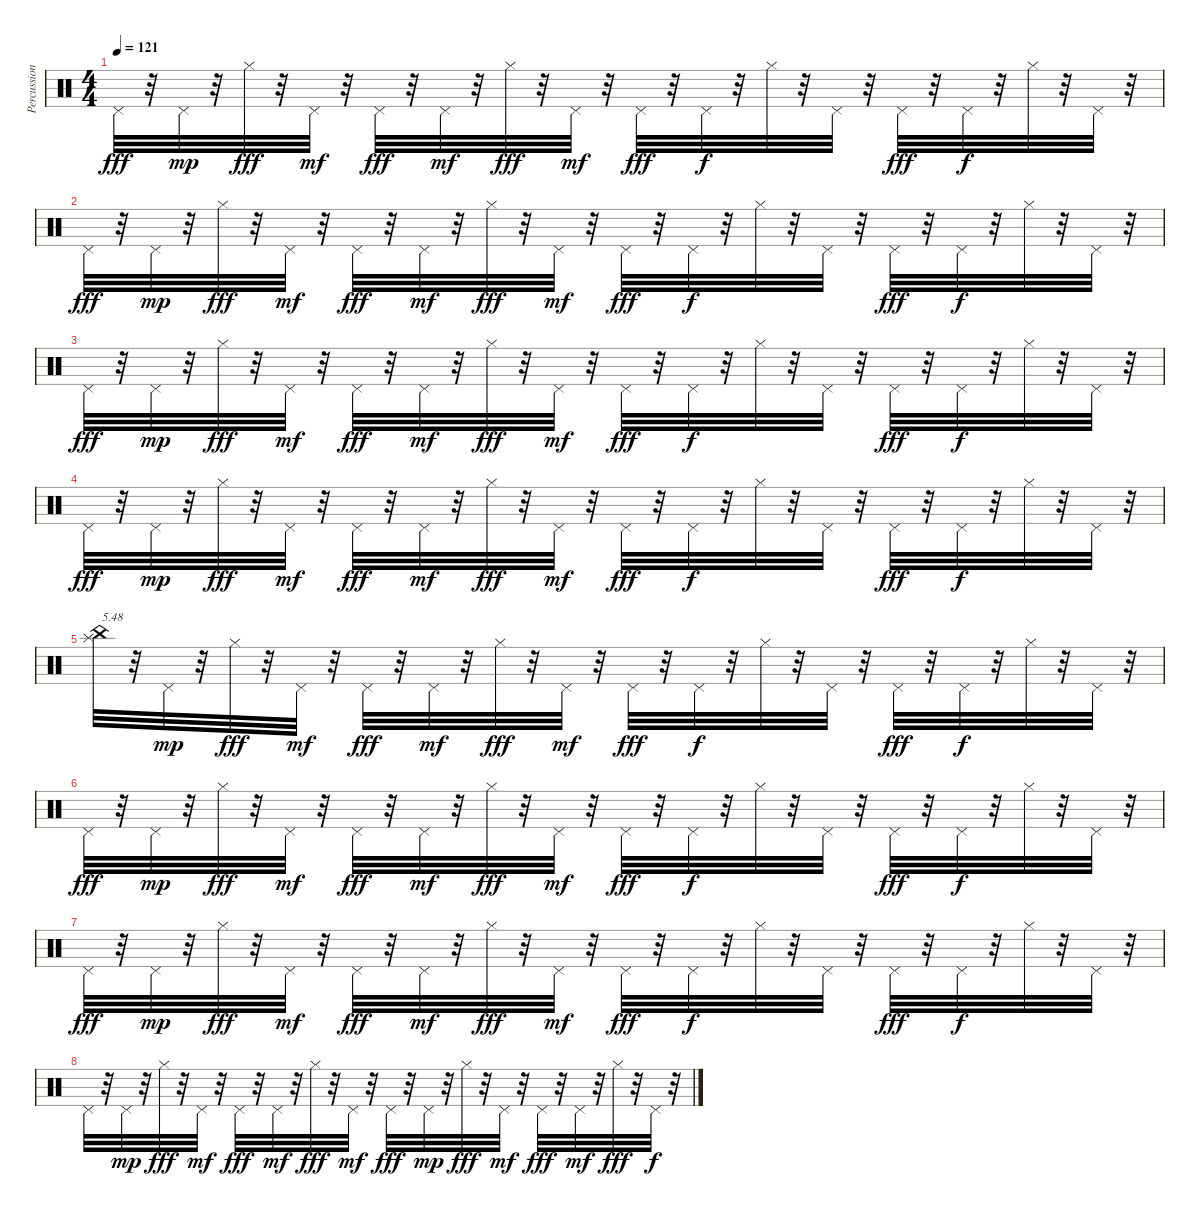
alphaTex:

\track ("Percussions" "Percussion") {instrument percussion}
\staff {score}
\articulation defaults
\ts (4 4)
\tempo 121
\clef neutral
\ks c "Pedal Hi-Hat (hit)".32{dy fff}
r.32 "Pedal Hi-Hat (hit)".32{dy mp} r.32 "Hi-Hat (closed)".32{dy fff} r.32 "Pedal Hi-Hat (hit)".32{dy mf} r.32 "Pedal Hi-Hat (hit)".32{dy fff} r.32 "Pedal Hi-Hat (hit)".32{dy mf} r.32 "Hi-Hat (closed)".32{dy fff} r.32 "Pedal Hi-Hat (hit)".32{dy mf} r.32 "Pedal Hi-Hat (hit)".32{dy fff} r.32 "Pedal Hi-Hat (hit)".32{dy f} r.32 "Hi-Hat (closed)".32 r.32 "Pedal Hi-Hat (hit)".32 r.32 "Pedal Hi-Hat (hit)".32{dy fff} r.32 "Pedal Hi-Hat (hit)".32{dy f} r.32 "Hi-Hat (closed)".32 r.32 "Pedal Hi-Hat (hit)".32 r.32 |
"Pedal Hi-Hat (hit)".32{dy fff} r.32 "Pedal Hi-Hat (hit)".32{dy mp} r.32 "Hi-Hat (closed)".32{dy fff} r.32 "Pedal Hi-Hat (hit)".32{dy mf} r.32 "Pedal Hi-Hat (hit)".32{dy fff} r.32 "Pedal Hi-Hat (hit)".32{dy mf} r.32 "Hi-Hat (closed)".32{dy fff} r.32 "Pedal Hi-Hat (hit)".32{dy mf} r.32 "Pedal Hi-Hat (hit)".32{dy fff} r.32 "Pedal Hi-Hat (hit)".32{dy f} r.32 "Hi-Hat (closed)".32 r.32 "Pedal Hi-Hat (hit)".32 r.32 "Pedal Hi-Hat (hit)".32{dy fff} r.32 "Pedal Hi-Hat (hit)".32{dy f} r.32 "Hi-Hat (closed)".32 r.32 "Pedal Hi-Hat (hit)".32 r.32 |
"Pedal Hi-Hat (hit)".32{dy fff} r.32 "Pedal Hi-Hat (hit)".32{dy mp} r.32 "Hi-Hat (closed)".32{dy fff} r.32 "Pedal Hi-Hat (hit)".32{dy mf} r.32 "Pedal Hi-Hat (hit)".32{dy fff} r.32 "Pedal Hi-Hat (hit)".32{dy mf} r.32 "Hi-Hat (closed)".32{dy fff} r.32 "Pedal Hi-Hat (hit)".32{dy mf} r.32 "Pedal Hi-Hat (hit)".32{dy fff} r.32 "Pedal Hi-Hat (hit)".32{dy f} r.32 "Hi-Hat (closed)".32 r.32 "Pedal Hi-Hat (hit)".32 r.32 "Pedal Hi-Hat (hit)".32{dy fff} r.32 "Pedal Hi-Hat (hit)".32{dy f} r.32 "Hi-Hat (closed)".32 r.32 "Pedal Hi-Hat (hit)".32 r.32 |
"Pedal Hi-Hat (hit)".32{dy fff} r.32 "Pedal Hi-Hat (hit)".32{dy mp} r.32 "Hi-Hat (closed)".32{dy fff} r.32 "Pedal Hi-Hat (hit)".32{dy mf} r.32 "Pedal Hi-Hat (hit)".32{dy fff} r.32 "Pedal Hi-Hat (hit)".32{dy mf} r.32 "Hi-Hat (closed)".32{dy fff} r.32 "Pedal Hi-Hat (hit)".32{dy mf} r.32 "Pedal Hi-Hat (hit)".32{dy fff} r.32 "Pedal Hi-Hat (hit)".32{dy f} r.32 "Hi-Hat (closed)".32 r.32 "Pedal Hi-Hat (hit)".32 r.32 "Pedal Hi-Hat (hit)".32{dy fff} r.32 "Pedal Hi-Hat (hit)".32{dy f} r.32 "Hi-Hat (closed)".32 r.32 "Pedal Hi-Hat (hit)".32 r.32 |
("Splash (hit)" "China (hit)").32{txt "5.48"} r.32 "Pedal Hi-Hat (hit)".32{dy mp} r.32 "Hi-Hat (closed)".32{dy fff} r.32 "Pedal Hi-Hat (hit)".32{dy mf} r.32 "Pedal Hi-Hat (hit)".32{dy fff} r.32 "Pedal Hi-Hat (hit)".32{dy mf} r.32 "Hi-Hat (closed)".32{dy fff} r.32 "Pedal Hi-Hat (hit)".32{dy mf} r.32 "Pedal Hi-Hat (hit)".32{dy fff} r.32 "Pedal Hi-Hat (hit)".32{dy f} r.32 "Hi-Hat (closed)".32 r.32 "Pedal Hi-Hat (hit)".32 r.32 "Pedal Hi-Hat (hit)".32{dy fff} r.32 "Pedal Hi-Hat (hit)".32{dy f} r.32 "Hi-Hat (closed)".32 r.32 "Pedal Hi-Hat (hit)".32 r.32 |
"Pedal Hi-Hat (hit)".32{dy fff} r.32 "Pedal Hi-Hat (hit)".32{dy mp} r.32 "Hi-Hat (closed)".32{dy fff} r.32 "Pedal Hi-Hat (hit)".32{dy mf} r.32 "Pedal Hi-Hat (hit)".32{dy fff} r.32 "Pedal Hi-Hat (hit)".32{dy mf} r.32 "Hi-Hat (closed)".32{dy fff} r.32 "Pedal Hi-Hat (hit)".32{dy mf} r.32 "Pedal Hi-Hat (hit)".32{dy fff} r.32 "Pedal Hi-Hat (hit)".32{dy f} r.32 "Hi-Hat (closed)".32 r.32 "Pedal Hi-Hat (hit)".32 r.32 "Pedal Hi-Hat (hit)".32{dy fff} r.32 "Pedal Hi-Hat (hit)".32{dy f} r.32 "Hi-Hat (closed)".32 r.32 "Pedal Hi-Hat (hit)".32 r.32 |
"Pedal Hi-Hat (hit)".32{dy fff} r.32 "Pedal Hi-Hat (hit)".32{dy mp} r.32 "Hi-Hat (closed)".32{dy fff} r.32 "Pedal Hi-Hat (hit)".32{dy mf} r.32 "Pedal Hi-Hat (hit)".32{dy fff} r.32 "Pedal Hi-Hat (hit)".32{dy mf} r.32 "Hi-Hat (closed)".32{dy fff} r.32 "Pedal Hi-Hat (hit)".32{dy mf} r.32 "Pedal Hi-Hat (hit)".32{dy fff} r.32 "Pedal Hi-Hat (hit)".32{dy f} r.32 "Hi-Hat (closed)".32 r.32 "Pedal Hi-Hat (hit)".32 r.32 "Pedal Hi-Hat (hit)".32{dy fff} r.32 "Pedal Hi-Hat (hit)".32{dy f} r.32 "Hi-Hat (closed)".32 r.32 "Pedal Hi-Hat (hit)".32 r.32 |
"Pedal Hi-Hat (hit)".32 r.32 "Pedal Hi-Hat (hit)".32{dy mp} r.32 "Hi-Hat (closed)".32{dy fff} r.32 "Pedal Hi-Hat (hit)".32{dy mf} r.32 "Pedal Hi-Hat (hit)".32{dy fff} r.32 "Pedal Hi-Hat (hit)".32{dy mf} r.32 "Hi-Hat (closed)".32{dy fff} r.32 "Pedal Hi-Hat (hit)".32{dy mf} r.32 "Pedal Hi-Hat (hit)".32{dy fff} r.32 "Pedal Hi-Hat (hit)".32{dy mp} r.32 "Hi-Hat (closed)".32{dy fff} r.32 "Pedal Hi-Hat (hit)".32{dy mf} r.32 "Pedal Hi-Hat (hit)".32{dy fff} r.32 "Pedal Hi-Hat (hit)".32{dy mf} r.32 "Hi-Hat (closed)".32{dy fff} r.32 "Pedal Hi-Hat (hit)".32{dy f} r.32
